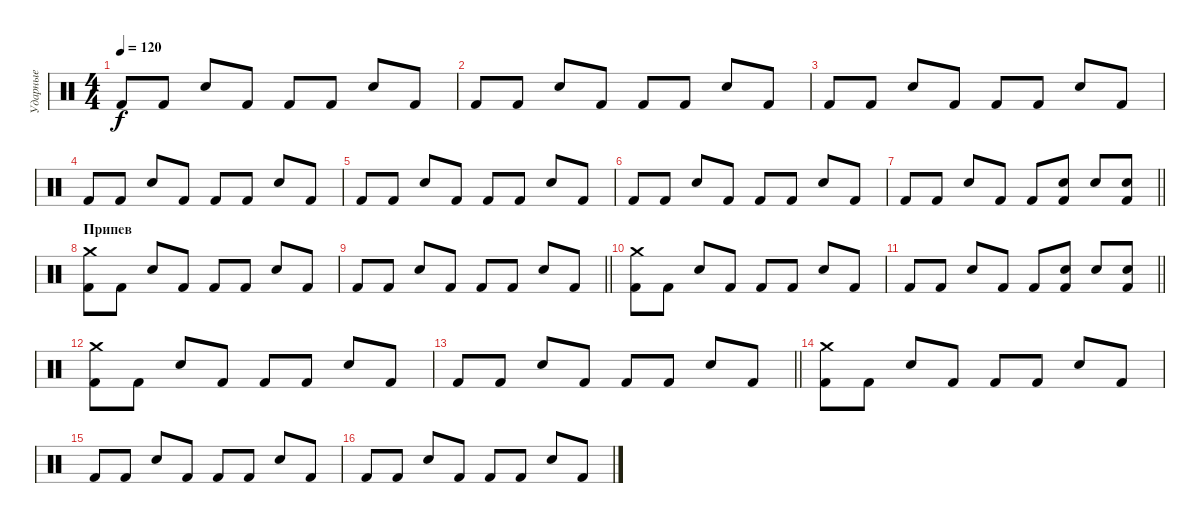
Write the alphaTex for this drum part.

\track ("Ударные" "Ударные") {instrument percussion}
\staff {score}
\articulation defaults
\ts (4 4)
\tempo 120
\clef neutral
\ks c "Kick (hit) 2".8{dy f} "Kick (hit) 2".8 "Snare (hit) 2".8 "Kick (hit) 2".8 "Kick (hit) 2".8 "Kick (hit) 2".8 "Snare (hit) 2".8 "Kick (hit) 2".8
|
"Kick (hit) 2".8 "Kick (hit) 2".8 "Snare (hit) 2".8 "Kick (hit) 2".8 "Kick (hit) 2".8 "Kick (hit) 2".8 "Snare (hit) 2".8 "Kick (hit) 2".8 |
"Kick (hit) 2".8 "Kick (hit) 2".8 "Snare (hit) 2".8 "Kick (hit) 2".8 "Kick (hit) 2".8 "Kick (hit) 2".8 "Snare (hit) 2".8 "Kick (hit) 2".8 |
"Kick (hit) 2".8 "Kick (hit) 2".8 "Snare (hit) 2".8 "Kick (hit) 2".8 "Kick (hit) 2".8 "Kick (hit) 2".8 "Snare (hit) 2".8 "Kick (hit) 2".8 |
"Kick (hit) 2".8 "Kick (hit) 2".8 "Snare (hit) 2".8 "Kick (hit) 2".8 "Kick (hit) 2".8 "Kick (hit) 2".8 "Snare (hit) 2".8 "Kick (hit) 2".8 |
"Kick (hit) 2".8 "Kick (hit) 2".8 "Snare (hit) 2".8 "Kick (hit) 2".8 "Kick (hit) 2".8 "Kick (hit) 2".8 "Snare (hit) 2".8 "Kick (hit) 2".8 |
\barLineRight lightlight "Kick (hit) 2".8 "Kick (hit) 2".8 "Snare (hit) 2".8 "Kick (hit) 2".8 "Kick (hit) 2".8
("Snare (hit) 2" "Kick (hit) 2").8 "Snare (hit) 2".8 ("Snare (hit) 2" "Kick (hit) 2").8 |
\section ("" "Припев")
("Kick (hit) 2" "Crash medium (hit)").8 "Kick (hit) 2".8 "Snare (hit) 2".8 "Kick (hit) 2".8 "Kick (hit) 2".8 "Kick (hit) 2".8 "Snare (hit) 2".8 "Kick (hit) 2".8 |
\barLineRight lightlight "Kick (hit) 2".8 "Kick (hit) 2".8 "Snare (hit) 2".8 "Kick (hit) 2".8 "Kick (hit) 2".8 "Kick (hit) 2".8 "Snare (hit) 2".8 "Kick (hit) 2".8
|
("Kick (hit) 2" "Crash medium (hit)").8 "Kick (hit) 2".8 "Snare (hit) 2".8 "Kick (hit) 2".8 "Kick (hit) 2".8 "Kick (hit) 2".8 "Snare (hit) 2".8 "Kick (hit) 2".8 |
\barLineRight lightlight "Kick (hit) 2".8 "Kick (hit) 2".8 "Snare (hit) 2".8 "Kick (hit) 2".8 "Kick (hit) 2".8
("Snare (hit) 2" "Kick (hit) 2").8 "Snare (hit) 2".8 ("Snare (hit) 2" "Kick (hit) 2").8 |
("Kick (hit) 2" "Crash medium (hit)").8 "Kick (hit) 2".8 "Snare (hit) 2".8 "Kick (hit) 2".8 "Kick (hit) 2".8 "Kick (hit) 2".8 "Snare (hit) 2".8 "Kick (hit) 2".8 |
\barLineRight lightlight "Kick (hit) 2".8 "Kick (hit) 2".8 "Snare (hit) 2".8 "Kick (hit) 2".8 "Kick (hit) 2".8 "Kick (hit) 2".8 "Snare (hit) 2".8 "Kick (hit) 2".8
|
("Kick (hit) 2" "Crash medium (hit)").8 "Kick (hit) 2".8 "Snare (hit) 2".8 "Kick (hit) 2".8 "Kick (hit) 2".8 "Kick (hit) 2".8 "Snare (hit) 2".8 "Kick (hit) 2".8 |
"Kick (hit) 2".8 "Kick (hit) 2".8 "Snare (hit) 2".8 "Kick (hit) 2".8 "Kick (hit) 2".8 "Kick (hit) 2".8 "Snare (hit) 2".8 "Kick (hit) 2".8 |
"Kick (hit) 2".8 "Kick (hit) 2".8 "Snare (hit) 2".8 "Kick (hit) 2".8 "Kick (hit) 2".8 "Kick (hit) 2".8 "Snare (hit) 2".8 "Kick (hit) 2".8
